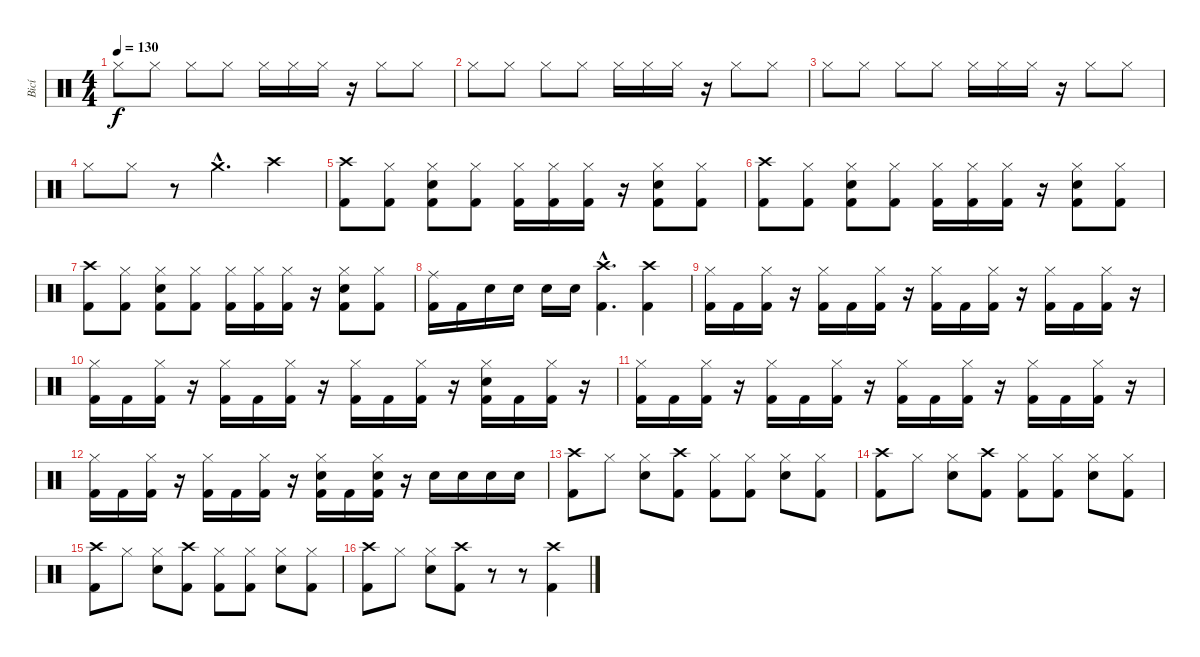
\track ("Bicí" "Bicí") {instrument percussion}
\staff {score}
\articulation defaults
\ts (4 4)
\tempo 130
\clef neutral
\ks c "Hi-Hat (closed)".8{dy f} "Hi-Hat (closed)".8 "Hi-Hat (closed)".8 "Hi-Hat (closed)".8 "Hi-Hat (closed)".16 "Hi-Hat (closed)".16 "Hi-Hat (closed)".16
r.16 "Hi-Hat (closed)".8 "Hi-Hat (closed)".8 |
"Hi-Hat (closed)".8 "Hi-Hat (closed)".8 "Hi-Hat (closed)".8 "Hi-Hat (closed)".8 "Hi-Hat (closed)".16 "Hi-Hat (closed)".16 "Hi-Hat (closed)".16 r.16 "Hi-Hat (closed)".8 "Hi-Hat (closed)".8 |
"Hi-Hat (closed)".8 "Hi-Hat (closed)".8 "Hi-Hat (closed)".8 "Hi-Hat (closed)".8 "Hi-Hat (closed)".16 "Hi-Hat (closed)".16 "Hi-Hat (closed)".16 r.16 "Hi-Hat (closed)".8 "Hi-Hat (closed)".8 |
"Hi-Hat (closed)".8 "Hi-Hat (closed)".8 r.8 "Crash medium (hit)"{hac}.4{d} "Crash high (hit)".4 |
("Crash high (hit)" "Kick (hit) 2").8 ("Hi-Hat (closed)" "Kick (hit) 2").8 ("Hi-Hat (closed)" "Snare (hit) 2" "Kick (hit) 2").8 ("Hi-Hat (closed)" "Kick (hit) 2").8 ("Hi-Hat (closed)" "Kick (hit) 2").16 ("Hi-Hat (closed)" "Kick (hit) 2").16 ("Hi-Hat (closed)" "Kick (hit) 2").16 r.16 ("Hi-Hat (closed)" "Snare (hit) 2" "Kick (hit) 2").8 ("Hi-Hat (closed)" "Kick (hit) 2").8 |
("Crash high (hit)" "Kick (hit) 2").8 ("Hi-Hat (closed)" "Kick (hit) 2").8 ("Hi-Hat (closed)" "Snare (hit) 2" "Kick (hit) 2").8 ("Hi-Hat (closed)" "Kick (hit) 2").8 ("Hi-Hat (closed)" "Kick (hit) 2").16 ("Hi-Hat (closed)" "Kick (hit) 2").16 ("Hi-Hat (closed)" "Kick (hit) 2").16 r.16 ("Hi-Hat (closed)" "Snare (hit) 2" "Kick (hit) 2").8 ("Hi-Hat (closed)" "Kick (hit) 2").8 |
("Crash high (hit)" "Kick (hit) 2").8 ("Hi-Hat (closed)" "Kick (hit) 2").8 ("Hi-Hat (closed)" "Snare (hit) 2" "Kick (hit) 2").8 ("Hi-Hat (closed)" "Kick (hit) 2").8 ("Hi-Hat (closed)" "Kick (hit) 2").16 ("Hi-Hat (closed)" "Kick (hit) 2").16 ("Hi-Hat (closed)" "Kick (hit) 2").16 r.16 ("Hi-Hat (closed)" "Snare (hit) 2" "Kick (hit) 2").8 ("Hi-Hat (closed)" "Kick (hit) 2").8 |
("Ride (middle)" "Kick (hit) 2").16 "Kick (hit) 2".16 "Snare (hit) 2".16 "Snare (hit) 2".16 "Snare (hit) 2".16 "Snare (hit) 2".16 ("Crash high (hit)"{hac} "Kick (hit) 2"{hac}).4{d} ("Crash high (hit)" "Kick (hit) 2").4 |
("Hi-Hat (closed)" "Kick (hit) 2").16 "Kick (hit) 2".16 ("Hi-Hat (closed)" "Kick (hit) 2").16 r.16 ("Hi-Hat (closed)" "Kick (hit) 2").16 "Kick (hit) 2".16 ("Hi-Hat (closed)" "Kick (hit) 2").16 r.16 ("Hi-Hat (closed)" "Kick (hit) 2").16 "Kick (hit) 2".16 ("Hi-Hat (closed)" "Kick (hit) 2").16 r.16 ("Hi-Hat (closed)" "Kick (hit) 2").16 "Kick (hit) 2".16 ("Hi-Hat (closed)" "Kick (hit) 2").16 r.16 |
("Hi-Hat (closed)" "Kick (hit) 2").16 "Kick (hit) 2".16 ("Hi-Hat (closed)" "Kick (hit) 2").16 r.16 ("Hi-Hat (closed)" "Kick (hit) 2").16 "Kick (hit) 2".16 ("Hi-Hat (closed)" "Kick (hit) 2").16 r.16 ("Hi-Hat (closed)" "Kick (hit) 2").16 "Kick (hit) 2".16 ("Hi-Hat (closed)" "Kick (hit) 2").16 r.16 ("Hi-Hat (closed)" "Snare (hit) 2" "Kick (hit) 2").16 "Kick (hit) 2".16 ("Hi-Hat (closed)" "Kick (hit) 2").16 r.16 |
("Hi-Hat (closed)" "Kick (hit) 2").16 "Kick (hit) 2".16 ("Hi-Hat (closed)" "Kick (hit) 2").16 r.16 ("Hi-Hat (closed)" "Kick (hit) 2").16 "Kick (hit) 2".16 ("Hi-Hat (closed)" "Kick (hit) 2").16 r.16 ("Hi-Hat (closed)" "Kick (hit) 2").16 "Kick (hit) 2".16 ("Hi-Hat (closed)" "Kick (hit) 2").16 r.16 ("Hi-Hat (closed)" "Kick (hit) 2").16 "Kick (hit) 2".16 ("Hi-Hat (closed)" "Kick (hit) 2").16 r.16 |
("Hi-Hat (closed)" "Kick (hit) 2").16 "Kick (hit) 2".16 ("Hi-Hat (closed)" "Kick (hit) 2").16 r.16 ("Hi-Hat (closed)" "Kick (hit) 2").16 "Kick (hit) 2".16 ("Hi-Hat (closed)" "Kick (hit) 2").16 r.16 ("Hi-Hat (closed)" "Snare (hit) 2" "Kick (hit) 2").16 "Kick (hit) 2".16 ("Hi-Hat (closed)" "Snare (hit) 2" "Kick (hit) 2").16 r.16 "Snare (hit) 2".16 "Snare (hit) 2".16 "Snare (hit) 2".16 "Snare (hit) 2".16 |
("Crash high (hit)" "Kick (hit) 2").8 "Hi-Hat (closed)".8 ("Hi-Hat (closed)" "Snare (hit) 2").8 ("Crash high (hit)" "Kick (hit) 2").8 ("Hi-Hat (closed)" "Kick (hit) 2").8 ("Hi-Hat (closed)" "Kick (hit) 2").8 ("Hi-Hat (closed)" "Snare (hit) 2").8 ("Hi-Hat (closed)" "Kick (hit) 2").8 |
("Crash high (hit)" "Kick (hit) 2").8 "Hi-Hat (closed)".8 ("Hi-Hat (closed)" "Snare (hit) 2").8 ("Crash high (hit)" "Kick (hit) 2").8 ("Hi-Hat (closed)" "Kick (hit) 2").8 ("Hi-Hat (closed)" "Kick (hit) 2").8 ("Hi-Hat (closed)" "Snare (hit) 2").8 ("Hi-Hat (closed)" "Kick (hit) 2").8 |
("Crash high (hit)" "Kick (hit) 2").8 "Hi-Hat (closed)".8 ("Hi-Hat (closed)" "Snare (hit) 2").8 ("Crash high (hit)" "Kick (hit) 2").8 ("Hi-Hat (closed)" "Kick (hit) 2").8 ("Hi-Hat (closed)" "Kick (hit) 2").8 ("Hi-Hat (closed)" "Snare (hit) 2").8 ("Hi-Hat (closed)" "Kick (hit) 2").8 |
("Crash high (hit)" "Kick (hit) 2").8 "Hi-Hat (closed)".8 ("Hi-Hat (closed)" "Snare (hit) 2").8 ("Crash high (hit)" "Kick (hit) 2").8 r.8 r.8 ("Crash high (hit)" "Kick (hit) 2").4
